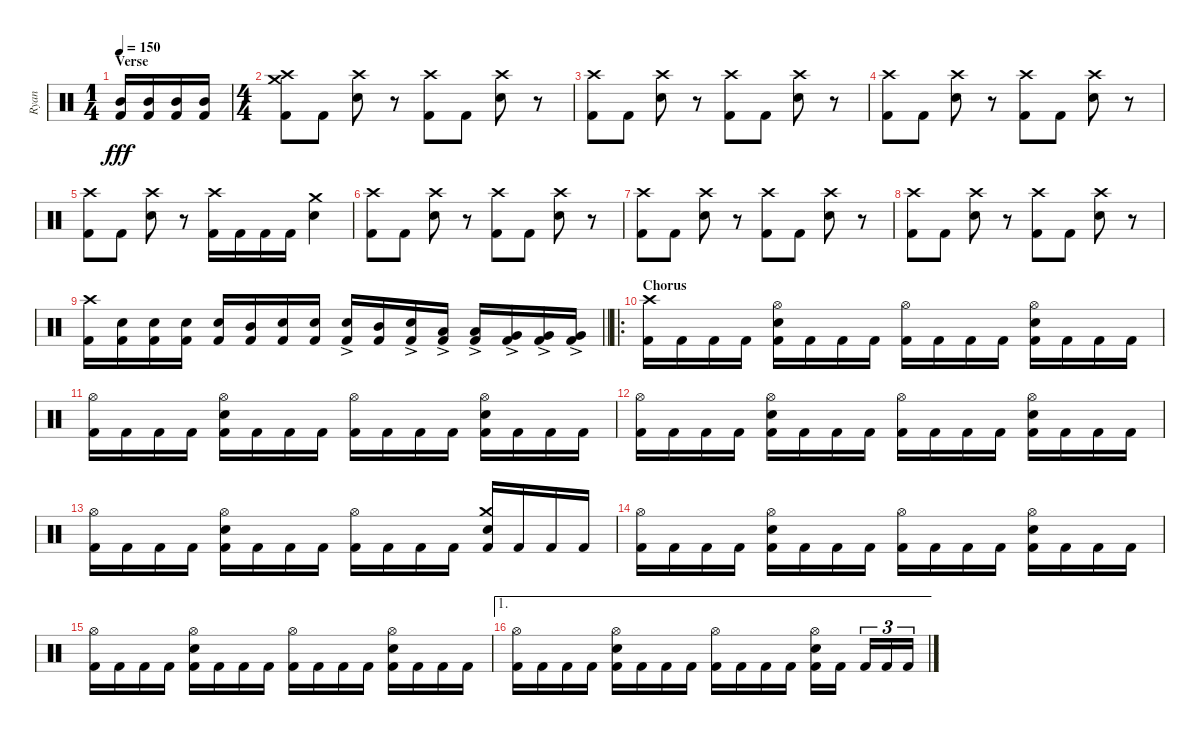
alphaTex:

\track ("Ryan" "Ryan") {instrument percussion}
\staff {score}
\articulation defaults
\ts (1 4)
\section ("" "Verse")
\tempo 150
\clef neutral
\ks c
("Mid Tom (hit)" "Kick (hit) 2").16{dy fff} ("Mid Tom (hit)" "Kick (hit) 2").16 ("Mid Tom (hit)" "Kick (hit) 2").16 ("Mid Tom (hit)" "Kick (hit) 2").16 |
\ts (4 4)
("Crash medium (hit)" "Crash high (hit)" "Kick (hit) 2").8 "Kick (hit) 2".8 ("Crash high (hit)" "Electric Snare (hit)").8 r.8 ("Crash high (hit)" "Kick (hit) 2").8 "Kick (hit) 2".8 ("Crash high (hit)" "Electric Snare (hit)").8 r.8 |
("Crash high (hit)" "Kick (hit) 2").8 "Kick (hit) 2".8 ("Crash high (hit)" "Electric Snare (hit)").8 r.8 ("Crash high (hit)" "Kick (hit) 2").8 "Kick (hit) 2".8 ("Crash high (hit)" "Electric Snare (hit)").8 r.8 |
("Crash high (hit)" "Kick (hit) 2").8 "Kick (hit) 2".8 ("Crash high (hit)" "Electric Snare (hit)").8 r.8 ("Crash high (hit)" "Kick (hit) 2").8 "Kick (hit) 2".8 ("Crash high (hit)" "Electric Snare (hit)").8 r.8 |
("Crash high (hit)" "Kick (hit) 2").8 "Kick (hit) 2".8 ("Crash high (hit)" "Electric Snare (hit)").8 r.8 ("Crash high (hit)" "Kick (hit) 2").16 "Kick (hit) 2".16 "Kick (hit) 2".16 "Kick (hit) 2".16 ("Crash medium (hit)" "Electric Snare (hit)").4 |
("Crash high (hit)" "Kick (hit) 2").8 "Kick (hit) 2".8 ("Crash high (hit)" "Electric Snare (hit)").8 r.8 ("Crash high (hit)" "Kick (hit) 2").8 "Kick (hit) 2".8 ("Crash high (hit)" "Electric Snare (hit)").8 r.8 |
("Crash high (hit)" "Kick (hit) 2").8 "Kick (hit) 2".8 ("Crash high (hit)" "Electric Snare (hit)").8 r.8 ("Crash high (hit)" "Kick (hit) 2").8 "Kick (hit) 2".8 ("Crash high (hit)" "Electric Snare (hit)").8 r.8 |
("Crash high (hit)" "Kick (hit) 2").8 "Kick (hit) 2".8 ("Crash high (hit)" "Electric Snare (hit)").8 r.8 ("Crash high (hit)" "Kick (hit) 2").8 "Kick (hit) 2".8 ("Crash high (hit)" "Electric Snare (hit)").8 r.8 |
\barLineRight lightlight
("Crash high (hit)" "Kick (hit) 2").16 ("Electric Snare (hit)" "Kick (hit) 2").16 ("Electric Snare (hit)" "Kick (hit) 2").16 ("Electric Snare (hit)" "Kick (hit) 2").16 ("Electric Snare (hit)" "Kick (hit) 2").16 ("Mid Tom (hit)" "Kick (hit) 2").16 ("Electric Snare (hit)" "Kick (hit) 2").16 ("Electric Snare (hit)" "Kick (hit) 2").16 ("Electric Snare (hit)"{ac} "Kick (hit) 2").16 ("Mid Tom (hit)" "Kick (hit) 2").16 ("Electric Snare (hit)"{ac} "Kick (hit) 2").16 ("Low Tom (hit)"{ac} "Kick (hit) 2").16 ("Low Tom (hit)"{ac} "Kick (hit) 2").16 ("Very Low Tom (hit)"{ac} "Kick (hit) 2").16 ("Very Low Tom (hit)"{ac} "Kick (hit) 2").16 ("Very Low Tom (hit)"{ac} "Kick (hit) 2").16 |
\ro
\section ("" "Chorus")
("Crash high (hit)" "Kick (hit) 2").16 "Kick (hit) 2".16 "Kick (hit) 2".16 "Kick (hit) 2".16 ("Hi-Hat (open)" "Electric Snare (hit)" "Kick (hit) 2").16 "Kick (hit) 2".16 "Kick (hit) 2".16 "Kick (hit) 2".16 ("Hi-Hat (open)" "Kick (hit) 2").16 "Kick (hit) 2".16 "Kick (hit) 2".16 "Kick (hit) 2".16 ("Hi-Hat (open)" "Electric Snare (hit)" "Kick (hit) 2").16 "Kick (hit) 2".16 "Kick (hit) 2".16 "Kick (hit) 2".16 |
("Hi-Hat (open)" "Kick (hit) 2").16 "Kick (hit) 2".16 "Kick (hit) 2".16 "Kick (hit) 2".16 ("Hi-Hat (open)" "Electric Snare (hit)" "Kick (hit) 2").16 "Kick (hit) 2".16 "Kick (hit) 2".16 "Kick (hit) 2".16 ("Hi-Hat (open)" "Kick (hit) 2").16 "Kick (hit) 2".16 "Kick (hit) 2".16 "Kick (hit) 2".16 ("Hi-Hat (open)" "Electric Snare (hit)" "Kick (hit) 2").16 "Kick (hit) 2".16 "Kick (hit) 2".16 "Kick (hit) 2".16 |
("Hi-Hat (open)" "Kick (hit) 2").16 "Kick (hit) 2".16 "Kick (hit) 2".16 "Kick (hit) 2".16 ("Hi-Hat (open)" "Electric Snare (hit)" "Kick (hit) 2").16 "Kick (hit) 2".16 "Kick (hit) 2".16 "Kick (hit) 2".16 ("Hi-Hat (open)" "Kick (hit) 2").16 "Kick (hit) 2".16 "Kick (hit) 2".16 "Kick (hit) 2".16 ("Hi-Hat (open)" "Electric Snare (hit)" "Kick (hit) 2").16 "Kick (hit) 2".16 "Kick (hit) 2".16 "Kick (hit) 2".16 |
("Hi-Hat (open)" "Kick (hit) 2").16 "Kick (hit) 2".16 "Kick (hit) 2".16 "Kick (hit) 2".16 ("Hi-Hat (open)" "Electric Snare (hit)" "Kick (hit) 2").16 "Kick (hit) 2".16 "Kick (hit) 2".16 "Kick (hit) 2".16 ("Hi-Hat (open)" "Kick (hit) 2").16 "Kick (hit) 2".16 "Kick (hit) 2".16 "Kick (hit) 2".16 ("Crash medium (hit)" "Electric Snare (hit)" "Kick (hit) 2").16 "Kick (hit) 2".16 "Kick (hit) 2".16 "Kick (hit) 2".16 |
("Hi-Hat (open)" "Kick (hit) 2").16 "Kick (hit) 2".16 "Kick (hit) 2".16 "Kick (hit) 2".16 ("Hi-Hat (open)" "Electric Snare (hit)" "Kick (hit) 2").16 "Kick (hit) 2".16 "Kick (hit) 2".16 "Kick (hit) 2".16 ("Hi-Hat (open)" "Kick (hit) 2").16 "Kick (hit) 2".16 "Kick (hit) 2".16 "Kick (hit) 2".16 ("Hi-Hat (open)" "Electric Snare (hit)" "Kick (hit) 2").16 "Kick (hit) 2".16 "Kick (hit) 2".16 "Kick (hit) 2".16 |
("Hi-Hat (open)" "Kick (hit) 2").16 "Kick (hit) 2".16 "Kick (hit) 2".16 "Kick (hit) 2".16 ("Hi-Hat (open)" "Electric Snare (hit)" "Kick (hit) 2").16 "Kick (hit) 2".16 "Kick (hit) 2".16 "Kick (hit) 2".16 ("Hi-Hat (open)" "Kick (hit) 2").16 "Kick (hit) 2".16 "Kick (hit) 2".16 "Kick (hit) 2".16 ("Hi-Hat (open)" "Electric Snare (hit)" "Kick (hit) 2").16 "Kick (hit) 2".16 "Kick (hit) 2".16 "Kick (hit) 2".16 |
\ae 1
("Hi-Hat (open)" "Kick (hit) 2").16 "Kick (hit) 2".16 "Kick (hit) 2".16 "Kick (hit) 2".16 ("Hi-Hat (open)" "Electric Snare (hit)" "Kick (hit) 2").16 "Kick (hit) 2".16 "Kick (hit) 2".16 "Kick (hit) 2".16 ("Hi-Hat (open)" "Kick (hit) 2").16 "Kick (hit) 2".16 "Kick (hit) 2".16 "Kick (hit) 2".16 ("Hi-Hat (open)" "Electric Snare (hit)" "Kick (hit) 2").16 "Kick (hit) 2".16{beam splitsecondary} "Kick (hit) 2".16{tu (3 2)} "Kick (hit) 2".16{tu (3 2)} "Kick (hit) 2".16{tu (3 2)}
